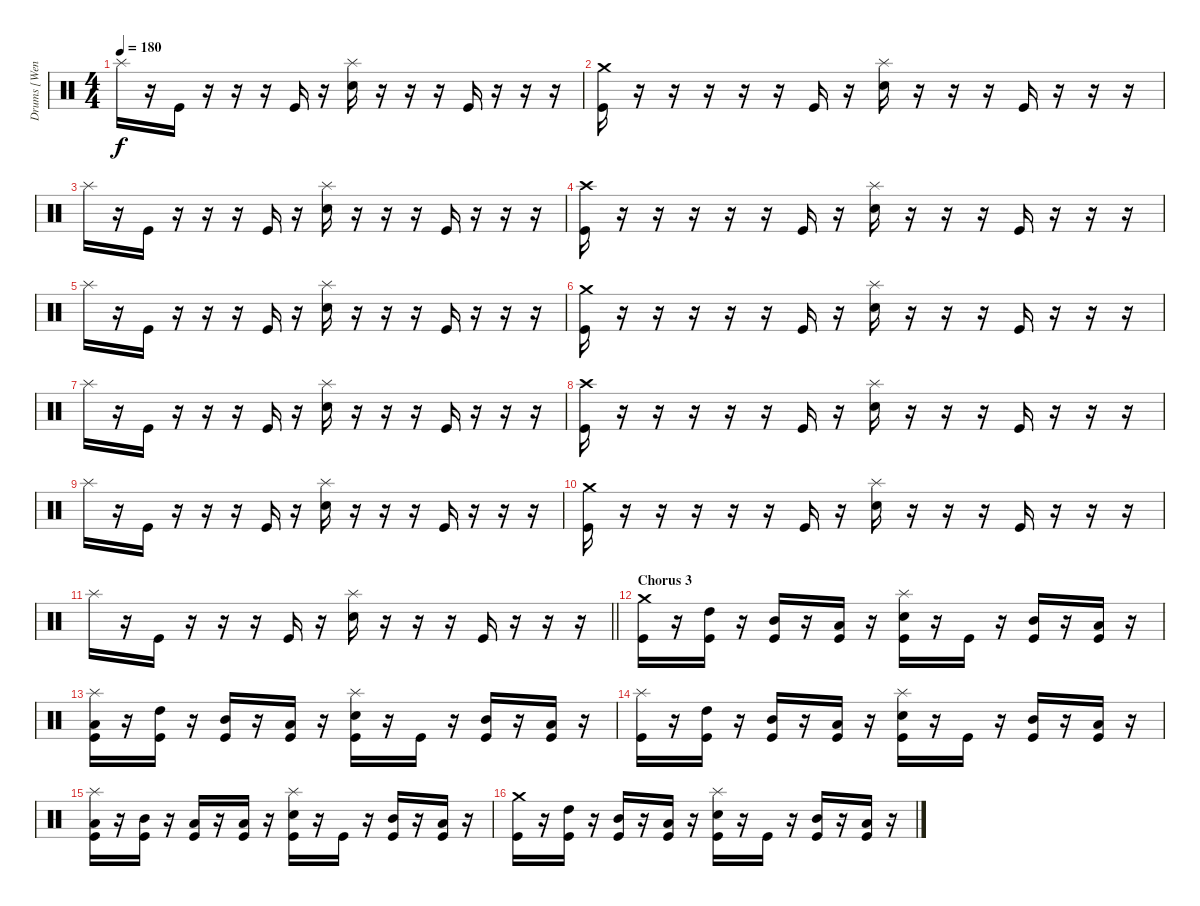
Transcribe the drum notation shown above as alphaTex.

\track ("Drums [Wengren]" "Drums [Wen") {instrument percussion}
\staff {score}
\articulation defaults
\ts (4 4)
\tempo 180
\clef neutral
\ks c "Splash (hit)".16{dy f}
r.16 "Kick (hit)".16 r.16 r.16 r.16 "Kick (hit)".16 r.16 ("Splash (hit)" "Electric Snare (hit)").16 r.16 r.16 r.16 "Kick (hit)".16 r.16 r.16 r.16 |
("Crash medium (hit)" "Kick (hit)").16 r.16 r.16 r.16 r.16 r.16 "Kick (hit)".16 r.16 ("Splash (hit)" "Electric Snare (hit)").16 r.16 r.16 r.16 "Kick (hit)".16 r.16 r.16 r.16 |
"Splash (hit)".16 r.16 "Kick (hit)".16 r.16 r.16 r.16 "Kick (hit)".16 r.16 ("Splash (hit)" "Electric Snare (hit)").16 r.16 r.16 r.16 "Kick (hit)".16 r.16 r.16 r.16 |
("Crash high (hit)" "Kick (hit)").16 r.16 r.16 r.16 r.16 r.16 "Kick (hit)".16 r.16 ("Splash (hit)" "Electric Snare (hit)").16 r.16 r.16 r.16 "Kick (hit)".16 r.16 r.16 r.16 |
"Splash (hit)".16 r.16 "Kick (hit)".16 r.16 r.16 r.16 "Kick (hit)".16 r.16 ("Splash (hit)" "Electric Snare (hit)").16 r.16 r.16 r.16 "Kick (hit)".16 r.16 r.16 r.16 |
("Crash medium (hit)" "Kick (hit)").16 r.16 r.16 r.16 r.16 r.16 "Kick (hit)".16 r.16 ("Splash (hit)" "Electric Snare (hit)").16 r.16 r.16 r.16 "Kick (hit)".16 r.16 r.16 r.16 |
"Splash (hit)".16 r.16 "Kick (hit)".16 r.16 r.16 r.16 "Kick (hit)".16 r.16 ("Splash (hit)" "Electric Snare (hit)").16 r.16 r.16 r.16 "Kick (hit)".16 r.16 r.16 r.16 |
("Crash high (hit)" "Kick (hit)").16 r.16 r.16 r.16 r.16 r.16 "Kick (hit)".16 r.16 ("Splash (hit)" "Electric Snare (hit)").16 r.16 r.16 r.16 "Kick (hit)".16 r.16 r.16 r.16 |
"Splash (hit)".16 r.16 "Kick (hit)".16 r.16 r.16 r.16 "Kick (hit)".16 r.16 ("Splash (hit)" "Electric Snare (hit)").16 r.16 r.16 r.16 "Kick (hit)".16 r.16 r.16 r.16 |
("Crash medium (hit)" "Kick (hit)").16 r.16 r.16 r.16 r.16 r.16 "Kick (hit)".16 r.16 ("Splash (hit)" "Electric Snare (hit)").16 r.16 r.16 r.16 "Kick (hit)".16 r.16 r.16 r.16 |
\barLineRight lightlight "Splash (hit)".16
r.16 "Kick (hit)".16 r.16 r.16 r.16 "Kick (hit)".16 r.16 ("Splash (hit)" "Electric Snare (hit)").16 r.16 r.16 r.16 "Kick (hit)".16 r.16 r.16 r.16 |
\section ("" "Chorus 3")
("Crash medium (hit)" "Kick (hit)").16 r.16 ("High Tom (hit)" "Kick (hit)").16 r.16 ("Mid Tom (hit)" "Kick (hit)").16 r.16 ("Low Tom (hit)" "Kick (hit)").16 r.16 ("Splash (hit)" "Electric Snare (hit)" "Kick (hit)").16 r.16 "Kick (hit)".16 r.16 ("Mid Tom (hit)" "Kick (hit)").16 r.16 ("Low Tom (hit)" "Kick (hit)").16 r.16 |
("Splash (hit)" "Low Floor Tom (hit)" "Kick (hit)").16 r.16 ("High Tom (hit)" "Kick (hit)").16 r.16 ("Mid Tom (hit)" "Kick (hit)").16 r.16 ("Low Tom (hit)" "Kick (hit)").16 r.16 ("Splash (hit)" "Electric Snare (hit)" "Kick (hit)").16 r.16 "Kick (hit)".16 r.16 ("Mid Tom (hit)" "Kick (hit)").16 r.16 ("Low Tom (hit)" "Kick (hit)").16 r.16 |
("Splash (hit)" "Kick (hit)").16 r.16 ("High Tom (hit)" "Kick (hit)").16 r.16 ("Mid Tom (hit)" "Kick (hit)").16 r.16 ("Low Tom (hit)" "Kick (hit)").16 r.16 ("Splash (hit)" "Electric Snare (hit)" "Kick (hit)").16 r.16 "Kick (hit)".16 r.16 ("Mid Tom (hit)" "Kick (hit)").16 r.16 ("Low Tom (hit)" "Kick (hit)").16 r.16 |
("Splash (hit)" "Low Floor Tom (hit)" "Kick (hit)").16 r.16 ("Mid Tom (hit)" "Kick (hit)").16 r.16 ("Low Tom (hit)" "Kick (hit)").16 r.16 ("Low Floor Tom (hit)" "Kick (hit)").16 r.16 ("Splash (hit)" "Electric Snare (hit)" "Kick (hit)").16 r.16 "Kick (hit)".16 r.16 ("Mid Tom (hit)" "Kick (hit)").16 r.16 ("Low Floor Tom (hit)" "Kick (hit)").16 r.16 |
("Crash medium (hit)" "Kick (hit)").16 r.16 ("High Tom (hit)" "Kick (hit)").16 r.16 ("Mid Tom (hit)" "Kick (hit)").16 r.16 ("Low Tom (hit)" "Kick (hit)").16 r.16 ("Splash (hit)" "Electric Snare (hit)" "Kick (hit)").16 r.16 "Kick (hit)".16 r.16 ("Mid Tom (hit)" "Kick (hit)").16 r.16 ("Low Tom (hit)" "Kick (hit)").16 r.16
